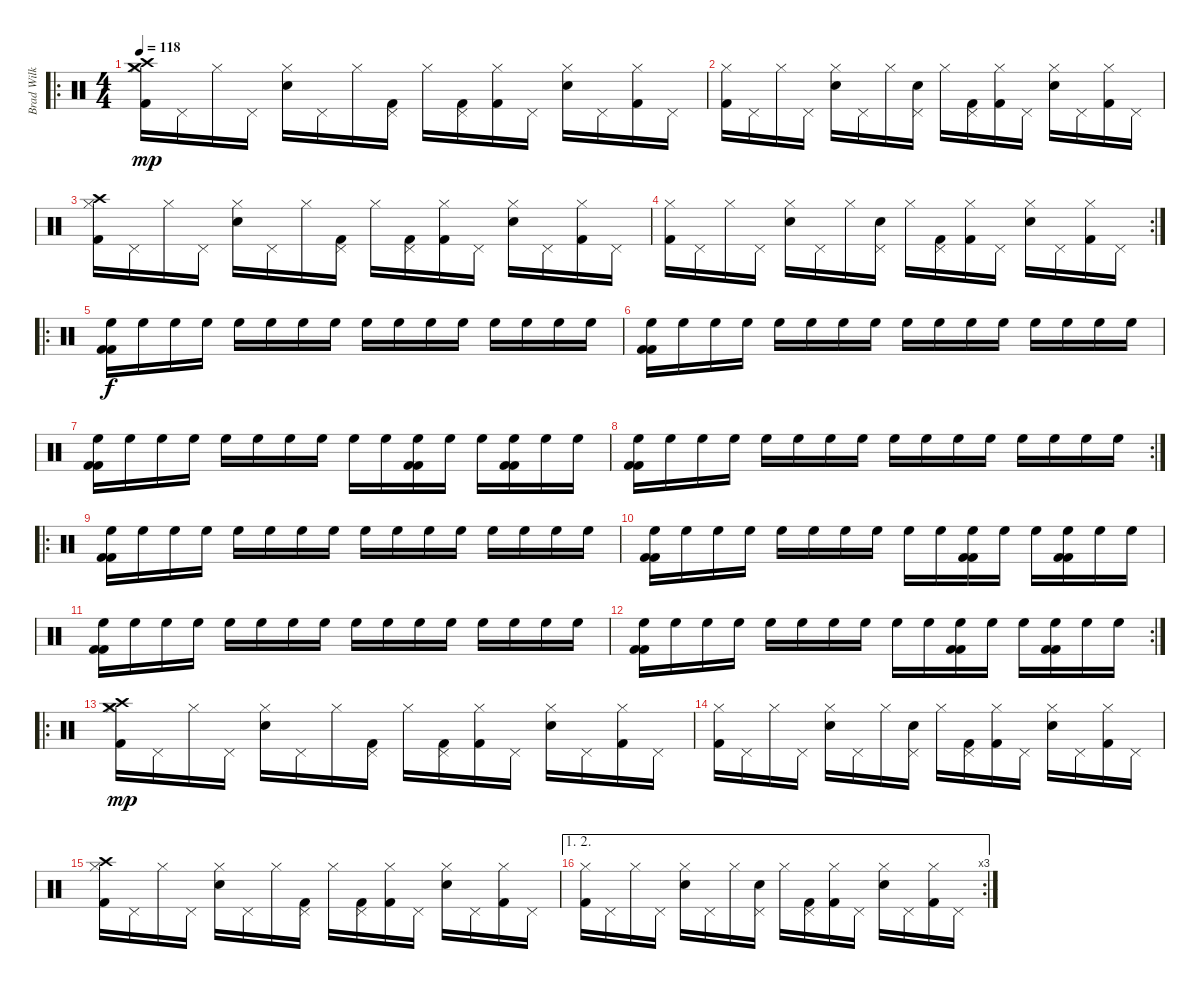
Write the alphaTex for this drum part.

\track ("Brad Wilk - Drums" "Brad Wilk ") {instrument percussion}
\staff {score}
\articulation defaults
\ro
\ts (4 4)
\tempo 118
\clef neutral
\ks c
("Kick (hit) 2" "Crash medium (hit)" "Crash high (hit)" "Hi-Hat (closed)").16{dy mp} "Pedal Hi-Hat (hit)".16 "Hi-Hat (closed)".16 "Pedal Hi-Hat (hit)".16 ("Electric Snare (hit)" "Hi-Hat (closed)").16 "Pedal Hi-Hat (hit)".16 "Hi-Hat (closed)".16 ("Kick (hit) 2" "Pedal Hi-Hat (hit)").16 "Hi-Hat (closed)".16 ("Kick (hit) 2" "Pedal Hi-Hat (hit)").16 ("Kick (hit) 2" "Hi-Hat (closed)").16 "Pedal Hi-Hat (hit)".16 ("Electric Snare (hit)" "Hi-Hat (closed)").16 "Pedal Hi-Hat (hit)".16 ("Kick (hit) 2" "Hi-Hat (closed)").16 "Pedal Hi-Hat (hit)".16 |
("Kick (hit) 2" "Hi-Hat (closed)").16 "Pedal Hi-Hat (hit)".16 "Hi-Hat (closed)".16 "Pedal Hi-Hat (hit)".16 ("Electric Snare (hit)" "Hi-Hat (closed)").16 "Pedal Hi-Hat (hit)".16 "Hi-Hat (closed)".16 ("Electric Snare (hit)" "Pedal Hi-Hat (hit)").16 "Hi-Hat (closed)".16 ("Kick (hit) 2" "Pedal Hi-Hat (hit)").16 ("Kick (hit) 2" "Hi-Hat (closed)").16 "Pedal Hi-Hat (hit)".16 ("Electric Snare (hit)" "Hi-Hat (closed)").16 "Pedal Hi-Hat (hit)".16 ("Kick (hit) 2" "Hi-Hat (closed)").16 "Pedal Hi-Hat (hit)".16 |
("Kick (hit) 2" "Crash high (hit)" "Hi-Hat (closed)").16 "Pedal Hi-Hat (hit)".16 "Hi-Hat (closed)".16 "Pedal Hi-Hat (hit)".16 ("Electric Snare (hit)" "Hi-Hat (closed)").16 "Pedal Hi-Hat (hit)".16 "Hi-Hat (closed)".16 ("Kick (hit) 2" "Pedal Hi-Hat (hit)").16 "Hi-Hat (closed)".16 ("Kick (hit) 2" "Pedal Hi-Hat (hit)").16 ("Kick (hit) 2" "Hi-Hat (closed)").16 "Pedal Hi-Hat (hit)".16 ("Electric Snare (hit)" "Hi-Hat (closed)").16 "Pedal Hi-Hat (hit)".16 ("Kick (hit) 2" "Hi-Hat (closed)").16 "Pedal Hi-Hat (hit)".16 |
\rc 2
("Kick (hit) 2" "Hi-Hat (closed)").16 "Pedal Hi-Hat (hit)".16 "Hi-Hat (closed)".16 "Pedal Hi-Hat (hit)".16 ("Electric Snare (hit)" "Hi-Hat (closed)").16 "Pedal Hi-Hat (hit)".16 "Hi-Hat (closed)".16 ("Electric Snare (hit)" "Pedal Hi-Hat (hit)").16 "Hi-Hat (closed)".16 ("Kick (hit) 2" "Pedal Hi-Hat (hit)").16 ("Kick (hit) 2" "Hi-Hat (closed)").16 "Pedal Hi-Hat (hit)".16 ("Electric Snare (hit)" "Hi-Hat (closed)").16 "Pedal Hi-Hat (hit)".16 ("Kick (hit) 2" "Hi-Hat (closed)").16 "Pedal Hi-Hat (hit)".16 |
\ro
("High Floor Tom (hit)" "Kick (hit) 2" "Kick (hit) 2").16{dy f} "High Floor Tom (hit)".16 "High Floor Tom (hit)".16 "High Floor Tom (hit)".16 "High Floor Tom (hit)".16 "High Floor Tom (hit)".16 "High Floor Tom (hit)".16 "High Floor Tom (hit)".16 "High Floor Tom (hit)".16 "High Floor Tom (hit)".16 "High Floor Tom (hit)".16 "High Floor Tom (hit)".16 "High Floor Tom (hit)".16 "High Floor Tom (hit)".16 "High Floor Tom (hit)".16 "High Floor Tom (hit)".16 |
("High Floor Tom (hit)" "Kick (hit) 2" "Kick (hit) 2").16 "High Floor Tom (hit)".16 "High Floor Tom (hit)".16 "High Floor Tom (hit)".16 "High Floor Tom (hit)".16 "High Floor Tom (hit)".16 "High Floor Tom (hit)".16 "High Floor Tom (hit)".16 "High Floor Tom (hit)".16 "High Floor Tom (hit)".16 "High Floor Tom (hit)".16 "High Floor Tom (hit)".16 "High Floor Tom (hit)".16 "High Floor Tom (hit)".16 "High Floor Tom (hit)".16 "High Floor Tom (hit)".16 |
("High Floor Tom (hit)" "Kick (hit) 2" "Kick (hit) 2").16 "High Floor Tom (hit)".16 "High Floor Tom (hit)".16 "High Floor Tom (hit)".16 "High Floor Tom (hit)".16 "High Floor Tom (hit)".16 "High Floor Tom (hit)".16 "High Floor Tom (hit)".16 "High Floor Tom (hit)".16 "High Floor Tom (hit)".16 ("High Floor Tom (hit)" "Kick (hit) 2" "Kick (hit) 2").16 "High Floor Tom (hit)".16 "High Floor Tom (hit)".16 ("High Floor Tom (hit)" "Kick (hit) 2" "Kick (hit) 2").16 "High Floor Tom (hit)".16 "High Floor Tom (hit)".16 |
\rc 2
("High Floor Tom (hit)" "Kick (hit) 2" "Kick (hit) 2").16 "High Floor Tom (hit)".16 "High Floor Tom (hit)".16 "High Floor Tom (hit)".16 "High Floor Tom (hit)".16 "High Floor Tom (hit)".16 "High Floor Tom (hit)".16 "High Floor Tom (hit)".16 "High Floor Tom (hit)".16 "High Floor Tom (hit)".16 "High Floor Tom (hit)".16 "High Floor Tom (hit)".16 "High Floor Tom (hit)".16 "High Floor Tom (hit)".16 "High Floor Tom (hit)".16 "High Floor Tom (hit)".16 |
\ro
("High Floor Tom (hit)" "Kick (hit) 2" "Kick (hit) 2").16 "High Floor Tom (hit)".16 "High Floor Tom (hit)".16 "High Floor Tom (hit)".16 "High Floor Tom (hit)".16 "High Floor Tom (hit)".16 "High Floor Tom (hit)".16 "High Floor Tom (hit)".16 "High Floor Tom (hit)".16 "High Floor Tom (hit)".16 "High Floor Tom (hit)".16 "High Floor Tom (hit)".16 "High Floor Tom (hit)".16 "High Floor Tom (hit)".16 "High Floor Tom (hit)".16 "High Floor Tom (hit)".16 |
("High Floor Tom (hit)" "Kick (hit) 2" "Kick (hit) 2").16 "High Floor Tom (hit)".16 "High Floor Tom (hit)".16 "High Floor Tom (hit)".16 "High Floor Tom (hit)".16 "High Floor Tom (hit)".16 "High Floor Tom (hit)".16 "High Floor Tom (hit)".16 "High Floor Tom (hit)".16 "High Floor Tom (hit)".16 ("High Floor Tom (hit)" "Kick (hit) 2" "Kick (hit) 2").16 "High Floor Tom (hit)".16 "High Floor Tom (hit)".16 ("High Floor Tom (hit)" "Kick (hit) 2" "Kick (hit) 2").16 "High Floor Tom (hit)".16 "High Floor Tom (hit)".16 |
("High Floor Tom (hit)" "Kick (hit) 2" "Kick (hit) 2").16 "High Floor Tom (hit)".16 "High Floor Tom (hit)".16 "High Floor Tom (hit)".16 "High Floor Tom (hit)".16 "High Floor Tom (hit)".16 "High Floor Tom (hit)".16 "High Floor Tom (hit)".16 "High Floor Tom (hit)".16 "High Floor Tom (hit)".16 "High Floor Tom (hit)".16 "High Floor Tom (hit)".16 "High Floor Tom (hit)".16 "High Floor Tom (hit)".16 "High Floor Tom (hit)".16 "High Floor Tom (hit)".16 |
\rc 2
("High Floor Tom (hit)" "Kick (hit) 2" "Kick (hit) 2").16 "High Floor Tom (hit)".16 "High Floor Tom (hit)".16 "High Floor Tom (hit)".16 "High Floor Tom (hit)".16 "High Floor Tom (hit)".16 "High Floor Tom (hit)".16 "High Floor Tom (hit)".16 "High Floor Tom (hit)".16 "High Floor Tom (hit)".16 ("High Floor Tom (hit)" "Kick (hit) 2" "Kick (hit) 2").16 "High Floor Tom (hit)".16 "High Floor Tom (hit)".16 ("High Floor Tom (hit)" "Kick (hit) 2" "Kick (hit) 2").16 "High Floor Tom (hit)".16 "High Floor Tom (hit)".16 |
\ro
("Kick (hit) 2" "Crash medium (hit)" "Crash high (hit)" "Hi-Hat (closed)").16{dy mp} "Pedal Hi-Hat (hit)".16 "Hi-Hat (closed)".16 "Pedal Hi-Hat (hit)".16 ("Electric Snare (hit)" "Hi-Hat (closed)").16 "Pedal Hi-Hat (hit)".16 "Hi-Hat (closed)".16 ("Kick (hit) 2" "Pedal Hi-Hat (hit)").16 "Hi-Hat (closed)".16 ("Kick (hit) 2" "Pedal Hi-Hat (hit)").16 ("Kick (hit) 2" "Hi-Hat (closed)").16 "Pedal Hi-Hat (hit)".16 ("Electric Snare (hit)" "Hi-Hat (closed)").16 "Pedal Hi-Hat (hit)".16 ("Kick (hit) 2" "Hi-Hat (closed)").16 "Pedal Hi-Hat (hit)".16 |
("Kick (hit) 2" "Hi-Hat (closed)").16 "Pedal Hi-Hat (hit)".16 "Hi-Hat (closed)".16 "Pedal Hi-Hat (hit)".16 ("Electric Snare (hit)" "Hi-Hat (closed)").16 "Pedal Hi-Hat (hit)".16 "Hi-Hat (closed)".16 ("Electric Snare (hit)" "Pedal Hi-Hat (hit)").16 "Hi-Hat (closed)".16 ("Kick (hit) 2" "Pedal Hi-Hat (hit)").16 ("Kick (hit) 2" "Hi-Hat (closed)").16 "Pedal Hi-Hat (hit)".16 ("Electric Snare (hit)" "Hi-Hat (closed)").16 "Pedal Hi-Hat (hit)".16 ("Kick (hit) 2" "Hi-Hat (closed)").16 "Pedal Hi-Hat (hit)".16 |
("Kick (hit) 2" "Crash high (hit)" "Hi-Hat (closed)").16 "Pedal Hi-Hat (hit)".16 "Hi-Hat (closed)".16 "Pedal Hi-Hat (hit)".16 ("Electric Snare (hit)" "Hi-Hat (closed)").16 "Pedal Hi-Hat (hit)".16 "Hi-Hat (closed)".16 ("Kick (hit) 2" "Pedal Hi-Hat (hit)").16 "Hi-Hat (closed)".16 ("Kick (hit) 2" "Pedal Hi-Hat (hit)").16 ("Kick (hit) 2" "Hi-Hat (closed)").16 "Pedal Hi-Hat (hit)".16 ("Electric Snare (hit)" "Hi-Hat (closed)").16 "Pedal Hi-Hat (hit)".16 ("Kick (hit) 2" "Hi-Hat (closed)").16 "Pedal Hi-Hat (hit)".16 |
\ae (1 2)
\rc 3
("Kick (hit) 2" "Hi-Hat (closed)").16 "Pedal Hi-Hat (hit)".16 "Hi-Hat (closed)".16 "Pedal Hi-Hat (hit)".16 ("Electric Snare (hit)" "Hi-Hat (closed)").16 "Pedal Hi-Hat (hit)".16 "Hi-Hat (closed)".16 ("Electric Snare (hit)" "Pedal Hi-Hat (hit)").16 "Hi-Hat (closed)".16 ("Kick (hit) 2" "Pedal Hi-Hat (hit)").16 ("Kick (hit) 2" "Hi-Hat (closed)").16 "Pedal Hi-Hat (hit)".16 ("Electric Snare (hit)" "Hi-Hat (closed)").16 "Pedal Hi-Hat (hit)".16 ("Kick (hit) 2" "Hi-Hat (closed)").16 "Pedal Hi-Hat (hit)".16
